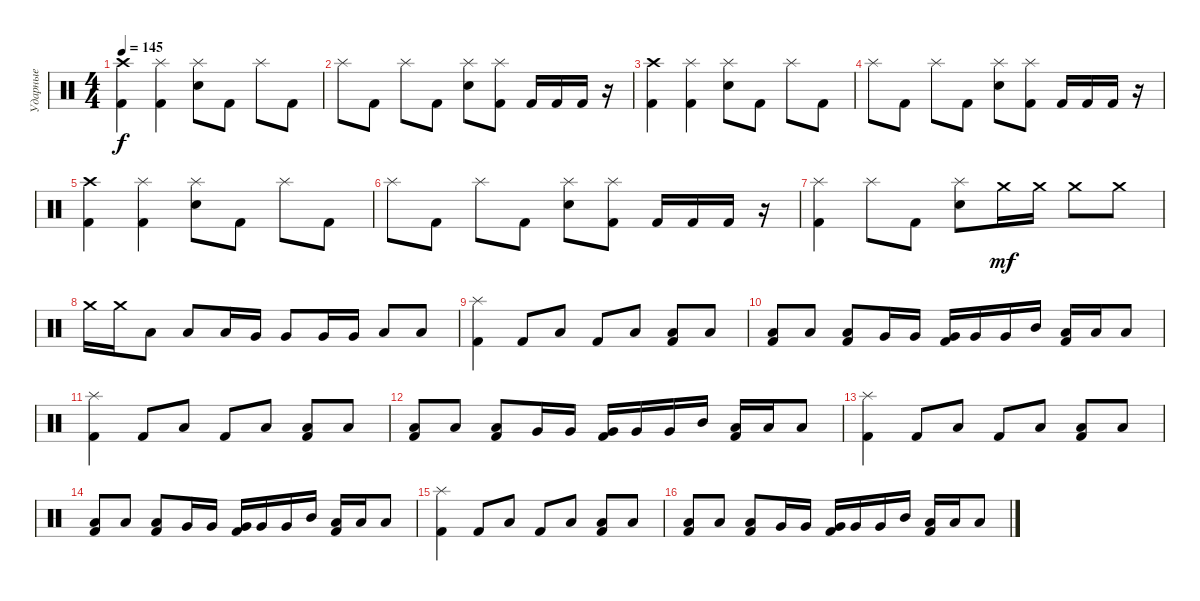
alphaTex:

\track ("Ударные" "Ударные") {instrument percussion}
\staff {score}
\articulation defaults
\ts (4 4)
\tempo 145
\clef neutral
\ks c
("Crash high (hit)" "Kick (hit) 2").4{dy f} ("Splash (hit)" "Kick (hit) 2").4 ("Splash (hit)" "Snare (hit) 2").8 "Kick (hit) 2".8 "Splash (hit)".8 "Kick (hit) 2".8 |
"Splash (hit)".8 "Kick (hit) 2".8 "Splash (hit)".8 "Kick (hit) 2".8 ("Splash (hit)" "Snare (hit) 2").8 ("Splash (hit)" "Kick (hit) 2").8 "Kick (hit) 2".16 "Kick (hit) 2".16 "Kick (hit) 2".16 r.16 |
("Crash high (hit)" "Kick (hit) 2").4 ("Splash (hit)" "Kick (hit) 2").4 ("Splash (hit)" "Snare (hit) 2").8 "Kick (hit) 2".8 "Splash (hit)".8 "Kick (hit) 2".8 |
"Splash (hit)".8 "Kick (hit) 2".8 "Splash (hit)".8 "Kick (hit) 2".8 ("Splash (hit)" "Snare (hit) 2").8 ("Splash (hit)" "Kick (hit) 2").8 "Kick (hit) 2".16 "Kick (hit) 2".16 "Kick (hit) 2".16 r.16 |
("Crash high (hit)" "Kick (hit) 2").4 ("Splash (hit)" "Kick (hit) 2").4 ("Splash (hit)" "Snare (hit) 2").8 "Kick (hit) 2".8 "Splash (hit)".8 "Kick (hit) 2".8 |
"Splash (hit)".8 "Kick (hit) 2".8 "Splash (hit)".8 "Kick (hit) 2".8 ("Splash (hit)" "Snare (hit) 2").8 ("Splash (hit)" "Kick (hit) 2").8 "Kick (hit) 2".16 "Kick (hit) 2".16 "Kick (hit) 2".16 r.16 |
("Splash (hit)" "Kick (hit) 2").4 "Splash (hit)".8 "Kick (hit) 2".8 ("Splash (hit)" "Snare (hit) 2").8 "Crash medium (hit)".16{dy mf} "Crash medium (hit)".16 "Crash medium (hit)".8 "Crash medium (hit)".8 |
"Crash medium (hit)".16 "Crash medium (hit)".16 "Low Tom (hit)".8 "Low Tom (hit)".8 "Low Tom (hit)".16 "Very Low Tom (hit)".16 "Very Low Tom (hit)".8 "Very Low Tom (hit)".16 "Very Low Tom (hit)".16 "Low Floor Tom (hit)".8 "Low Floor Tom (hit)".8 |
("Splash (hit)" "Kick (hit) 2").4 "Kick (hit) 2".8 "Low Tom (hit)".8 "Kick (hit) 2".8 "Low Tom (hit)".8 ("Low Tom (hit)" "Kick (hit) 2").8 "Low Tom (hit)".8 |
("Low Tom (hit)" "Kick (hit) 2").8 "Low Tom (hit)".8 ("Low Tom (hit)" "Kick (hit) 2").8 "Very Low Tom (hit)".16 "Very Low Tom (hit)".16 ("Very Low Tom (hit)" "Kick (hit) 2").16 "Very Low Tom (hit)".16 "Very Low Tom (hit)".16 "Mid Tom (hit)".16 ("Low Tom (hit)" "Kick (hit) 2").16 "Low Tom (hit)".16 "Low Tom (hit)".8 |
("Splash (hit)" "Kick (hit) 2").4 "Kick (hit) 2".8 "Low Tom (hit)".8 "Kick (hit) 2".8 "Low Tom (hit)".8 ("Low Tom (hit)" "Kick (hit) 2").8 "Low Tom (hit)".8 |
("Low Tom (hit)" "Kick (hit) 2").8 "Low Tom (hit)".8 ("Low Tom (hit)" "Kick (hit) 2").8 "Very Low Tom (hit)".16 "Very Low Tom (hit)".16 ("Very Low Tom (hit)" "Kick (hit) 2").16 "Very Low Tom (hit)".16 "Very Low Tom (hit)".16 "Mid Tom (hit)".16 ("Low Tom (hit)" "Kick (hit) 2").16 "Low Tom (hit)".16 "Low Tom (hit)".8 |
("Splash (hit)" "Kick (hit) 2").4 "Kick (hit) 2".8 "Low Tom (hit)".8 "Kick (hit) 2".8 "Low Tom (hit)".8 ("Low Tom (hit)" "Kick (hit) 2").8 "Low Tom (hit)".8 |
("Low Tom (hit)" "Kick (hit) 2").8 "Low Tom (hit)".8 ("Low Tom (hit)" "Kick (hit) 2").8 "Very Low Tom (hit)".16 "Very Low Tom (hit)".16 ("Very Low Tom (hit)" "Kick (hit) 2").16 "Very Low Tom (hit)".16 "Very Low Tom (hit)".16 "Mid Tom (hit)".16 ("Low Tom (hit)" "Kick (hit) 2").16 "Low Tom (hit)".16 "Low Tom (hit)".8 |
("Splash (hit)" "Kick (hit) 2").4 "Kick (hit) 2".8 "Low Tom (hit)".8 "Kick (hit) 2".8 "Low Tom (hit)".8 ("Low Tom (hit)" "Kick (hit) 2").8 "Low Tom (hit)".8 |
("Low Tom (hit)" "Kick (hit) 2").8 "Low Tom (hit)".8 ("Low Tom (hit)" "Kick (hit) 2").8 "Very Low Tom (hit)".16 "Very Low Tom (hit)".16 ("Very Low Tom (hit)" "Kick (hit) 2").16 "Very Low Tom (hit)".16 "Very Low Tom (hit)".16 "Mid Tom (hit)".16 ("Low Tom (hit)" "Kick (hit) 2").16 "Low Tom (hit)".16 "Low Tom (hit)".8
